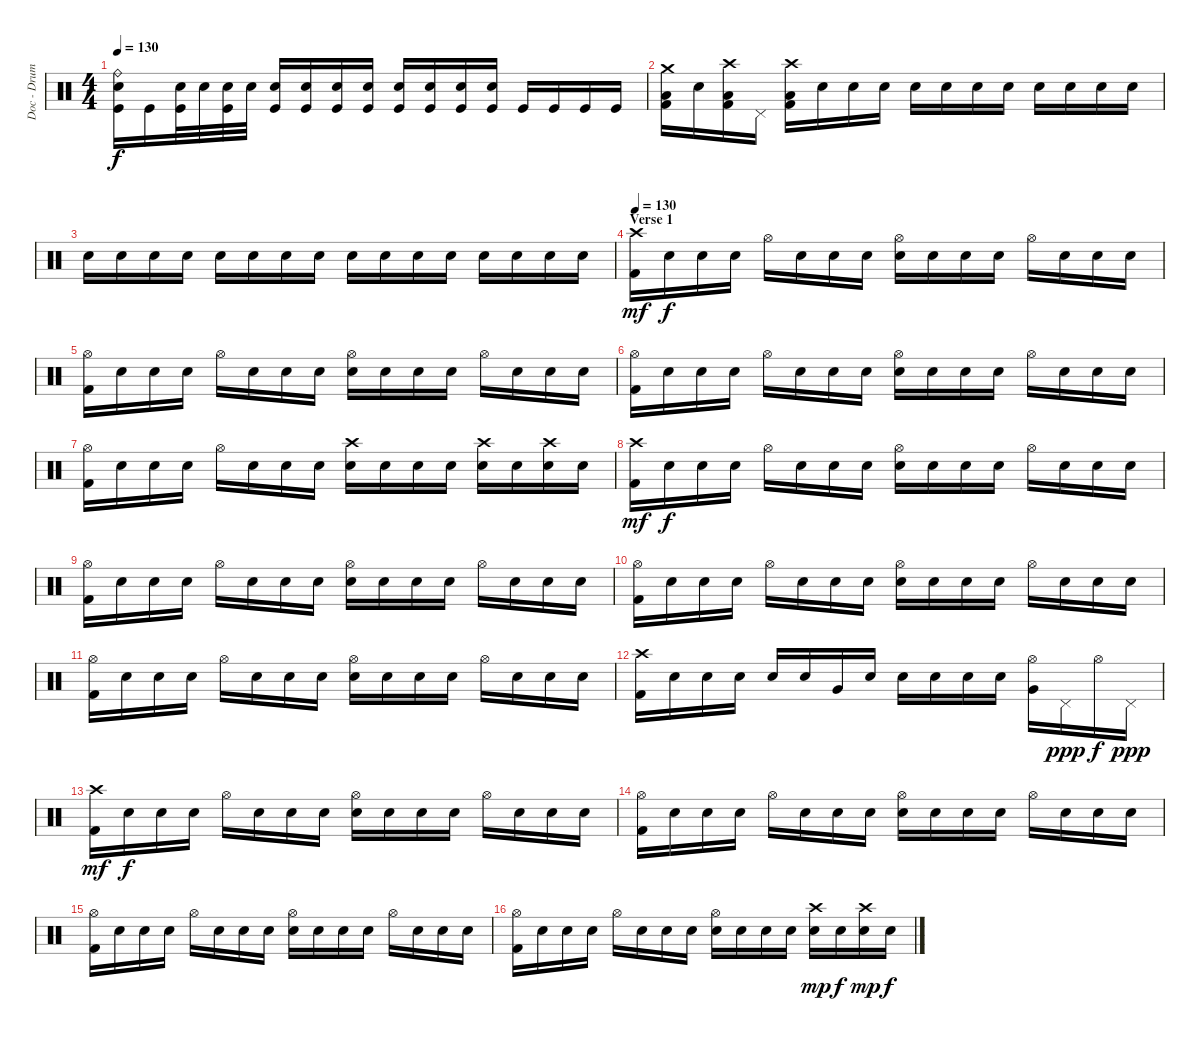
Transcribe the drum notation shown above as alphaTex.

\track ("Doc - Drums" "Doc - Drum") {instrument percussion}
\staff {score}
\articulation defaults
\ts (4 4)
\tempo 130
\clef neutral
\ks c
("Ride (bell)" "Electric Snare (hit)" "Kick (hit)").16{dy f} "Kick (hit)".16 ("Electric Snare (hit)" "Kick (hit)").32 "Electric Snare (hit)".32 ("Electric Snare (hit)" "Kick (hit)").32 "Electric Snare (hit)".32 ("Electric Snare (hit)" "Kick (hit)").16 ("Electric Snare (hit)" "Kick (hit)").16 ("Electric Snare (hit)" "Kick (hit)").16 ("Electric Snare (hit)" "Kick (hit)").16 ("Snare (hit) 2" "Kick (hit)").16 ("Snare (hit) 2" "Kick (hit)").16 ("Snare (hit) 2" "Kick (hit)").16 ("Snare (hit) 2" "Kick (hit)").16 "Kick (hit)".16 "Kick (hit)".16 "Kick (hit)".16 "Kick (hit)".16 |
("Crash medium (hit)" "Low Floor Tom (hit)" "Kick (hit) 2").16{volume 16} "Snare (hit)".16 ("Crash high (hit)" "Low Floor Tom (hit)" "Kick (hit) 2").16{volume 16} "Pedal Hi-Hat (hit)"{x}.16{volume 0} ("Crash high (hit)" "Low Floor Tom (hit)" "Kick (hit) 2").16{volume 16} "Snare (hit)"{x}.16{volume 0} "Snare (hit)".16 "Snare (hit)".16 "Snare (hit)".16 "Snare (hit)".16 "Snare (hit)".16 "Snare (hit)".16 "Snare (hit)".16 "Snare (hit)".16 "Snare (hit)".16 "Snare (hit)".16 |
"Snare (hit)".16 "Snare (hit)".16 "Snare (hit)".16 "Snare (hit)".16 "Snare (hit)".16 "Snare (hit)".16 "Snare (hit)".16 "Snare (hit)".16 "Snare (hit)".16 "Snare (hit)".16 "Snare (hit)".16 "Snare (hit)".16 "Snare (hit)".16 "Snare (hit)".16 "Snare (hit)".16 "Snare (hit)".16 |
\section ("" "Verse 1")
\tempo 130
("Crash high (hit)" "Kick (hit) 2").16{dy mf volume 16 balance 8} "Snare (hit)".16{dy f} "Snare (hit)".16 "Snare (hit)".16 "Hi-Hat (open)".16 "Snare (hit)".16 "Snare (hit)".16 "Snare (hit)".16 ("Hi-Hat (open)" "Electric Snare (hit)").16 "Snare (hit)".16 "Snare (hit)".16 "Snare (hit)".16 "Hi-Hat (open)".16 "Snare (hit)".16 "Snare (hit)".16 "Snare (hit)".16 |
("Hi-Hat (open)" "Kick (hit) 2").16 "Snare (hit)".16 "Snare (hit)".16 "Snare (hit)".16 "Hi-Hat (open)".16 "Snare (hit)".16 "Snare (hit)".16 "Snare (hit)".16 ("Hi-Hat (open)" "Electric Snare (hit)").16 "Snare (hit)".16 "Snare (hit)".16 "Snare (hit)".16 "Hi-Hat (open)".16 "Snare (hit)".16 "Snare (hit)".16 "Snare (hit)".16 |
("Hi-Hat (open)" "Kick (hit) 2").16 "Snare (hit)".16 "Snare (hit)".16 "Snare (hit)".16 "Hi-Hat (open)".16 "Snare (hit)".16 "Snare (hit)".16 "Snare (hit)".16 ("Hi-Hat (open)" "Electric Snare (hit)").16 "Snare (hit)".16 "Snare (hit)".16 "Snare (hit)".16 "Hi-Hat (open)".16 "Snare (hit)".16 "Snare (hit)".16 "Snare (hit)".16 |
("Hi-Hat (open)" "Kick (hit) 2").16 "Snare (hit)".16 "Snare (hit)".16 "Snare (hit)".16 "Hi-Hat (open)".16 "Snare (hit)".16 "Snare (hit)".16 "Snare (hit)".16 ("Crash high (hit)" "Electric Snare (hit)").16 "Snare (hit)".16 "Snare (hit)".16 "Snare (hit)".16 ("Crash high (hit)" "Electric Snare (hit)").16 "Snare (hit)".16 ("Crash high (hit)" "Electric Snare (hit)").16 "Snare (hit)".16 |
("Crash high (hit)" "Kick (hit) 2").16{dy mf} "Snare (hit)".16{dy f} "Snare (hit)".16 "Snare (hit)".16 "Hi-Hat (open)".16 "Snare (hit)".16 "Snare (hit)".16 "Snare (hit)".16 ("Hi-Hat (open)" "Electric Snare (hit)").16 "Snare (hit)".16 "Snare (hit)".16 "Snare (hit)".16 "Hi-Hat (open)".16 "Snare (hit)".16 "Snare (hit)".16 "Snare (hit)".16 |
("Hi-Hat (open)" "Kick (hit) 2").16 "Snare (hit)".16 "Snare (hit)".16 "Snare (hit)".16 "Hi-Hat (open)".16 "Snare (hit)".16 "Snare (hit)".16 "Snare (hit)".16 ("Hi-Hat (open)" "Electric Snare (hit)").16 "Snare (hit)".16 "Snare (hit)".16 "Snare (hit)".16 "Hi-Hat (open)".16 "Snare (hit)".16 "Snare (hit)".16 "Snare (hit)".16 |
("Hi-Hat (open)" "Kick (hit) 2").16 "Snare (hit)".16 "Snare (hit)".16 "Snare (hit)".16 "Hi-Hat (open)".16 "Snare (hit)".16 "Snare (hit)".16 "Snare (hit)".16 ("Hi-Hat (open)" "Electric Snare (hit)").16 "Snare (hit)".16 "Snare (hit)".16 "Snare (hit)".16 "Hi-Hat (open)".16 "Snare (hit)".16 "Snare (hit)".16 "Snare (hit)".16 |
("Hi-Hat (open)" "Kick (hit) 2").16 "Snare (hit)".16 "Snare (hit)".16 "Snare (hit)".16 "Hi-Hat (open)".16 "Snare (hit)".16 "Snare (hit)".16 "Snare (hit)".16 ("Hi-Hat (open)" "Electric Snare (hit)").16 "Snare (hit)".16 "Snare (hit)".16 "Snare (hit)".16 "Hi-Hat (open)".16 "Snare (hit)".16 "Snare (hit)".16 "Snare (hit)".16 |
("Crash high (hit)" "Kick (hit) 2").16 "Snare (hit)".16 "Electric Snare (hit)".16 "Electric Snare (hit)".16 "Snare (hit) 2".16 "Snare (hit) 2".16 "Very Low Tom (hit)".16 "Snare (hit)".16 "Electric Snare (hit)".16 "Electric Snare (hit)".16 "Snare (hit) 2".16 "Snare (hit) 2".16 ("Hi-Hat (open)" "Very Low Tom (hit)").16 "Pedal Hi-Hat (hit)".16{dy ppp} "Hi-Hat (open)".16{dy f} "Pedal Hi-Hat (hit)".16{dy ppp} |
("Crash high (hit)" "Kick (hit) 2").16{dy mf} "Snare (hit)".16{dy f} "Snare (hit)".16 "Snare (hit)".16 "Hi-Hat (open)".16 "Snare (hit)".16 "Snare (hit)".16 "Snare (hit)".16 ("Hi-Hat (open)" "Electric Snare (hit)").16 "Snare (hit)".16 "Snare (hit)".16 "Snare (hit)".16 "Hi-Hat (open)".16 "Snare (hit)".16 "Snare (hit)".16 "Snare (hit)".16 |
("Hi-Hat (open)" "Kick (hit) 2").16 "Snare (hit)".16 "Snare (hit)".16 "Snare (hit)".16 "Hi-Hat (open)".16 "Snare (hit)".16 "Snare (hit)".16 "Snare (hit)".16 ("Hi-Hat (open)" "Electric Snare (hit)").16 "Snare (hit)".16 "Snare (hit)".16 "Snare (hit)".16 "Hi-Hat (open)".16 "Snare (hit)".16 "Snare (hit)".16 "Snare (hit)".16 |
("Hi-Hat (open)" "Kick (hit) 2").16 "Snare (hit)".16 "Snare (hit)".16 "Snare (hit)".16 "Hi-Hat (open)".16 "Snare (hit)".16 "Snare (hit)".16 "Snare (hit)".16 ("Hi-Hat (open)" "Electric Snare (hit)").16 "Snare (hit)".16 "Snare (hit)".16 "Snare (hit)".16 "Hi-Hat (open)".16 "Snare (hit)".16 "Snare (hit)".16 "Snare (hit)".16 |
("Hi-Hat (open)" "Kick (hit) 2").16 "Snare (hit)".16 "Snare (hit)".16 "Snare (hit)".16 "Hi-Hat (open)".16 "Snare (hit)".16 "Snare (hit)".16 "Snare (hit)".16 ("Hi-Hat (open)" "Electric Snare (hit)").16 "Snare (hit)".16 "Snare (hit)".16 "Snare (hit)".16 ("Crash high (hit)" "Electric Snare (hit)").16{dy mp} "Snare (hit)".16{dy f} ("Crash high (hit)" "Electric Snare (hit)").16{dy mp} "Snare (hit)".16{dy f}
